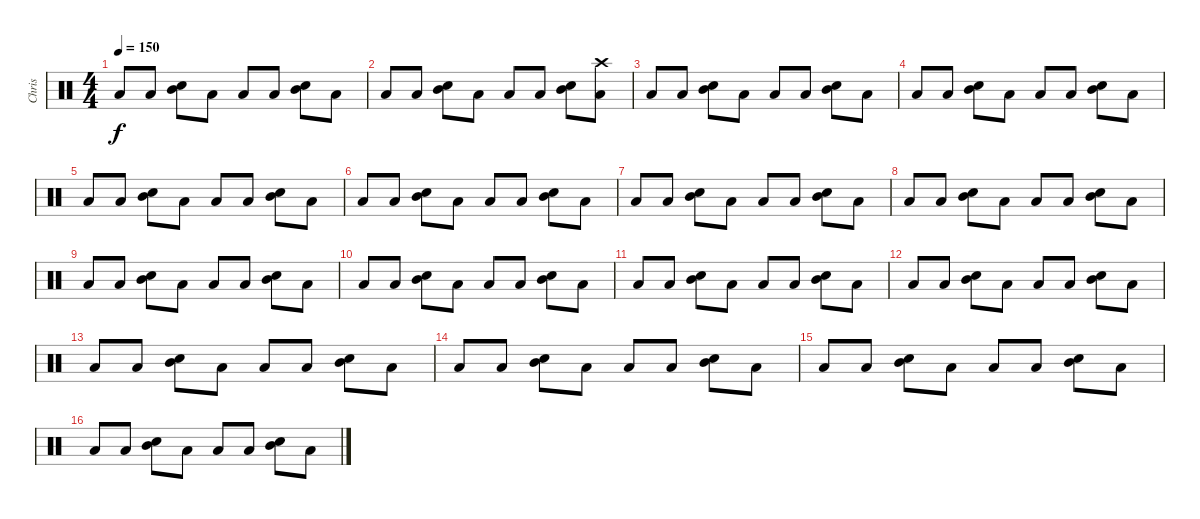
\track ("Chris" "Chris") {instrument percussion}
\staff {score}
\articulation defaults
\ts (4 4)
\tempo 150
\clef neutral
\ks c "Low Tom (hit)".8{dy f} "Low Tom (hit)".8
("Mid Tom (hit)" "Snare (hit) 2").8 "Low Tom (hit)".8 "Low Tom (hit)".8 "Low Tom (hit)".8 ("Mid Tom (hit)" "Snare (hit) 2").8 "Low Tom (hit)".8 |
"Low Tom (hit)".8 "Low Tom (hit)".8 ("Mid Tom (hit)" "Snare (hit) 2").8 "Low Tom (hit)".8 "Low Tom (hit)".8 "Low Tom (hit)".8 ("Mid Tom (hit)" "Snare (hit) 2").8 ("Low Tom (hit)" "Crash high (hit)").8 |
"Low Tom (hit)".8 "Low Tom (hit)".8 ("Mid Tom (hit)" "Snare (hit) 2").8 "Low Tom (hit)".8 "Low Tom (hit)".8 "Low Tom (hit)".8 ("Mid Tom (hit)" "Snare (hit) 2").8 "Low Tom (hit)".8 |
"Low Tom (hit)".8 "Low Tom (hit)".8 ("Mid Tom (hit)" "Snare (hit) 2").8 "Low Tom (hit)".8 "Low Tom (hit)".8 "Low Tom (hit)".8 ("Mid Tom (hit)" "Snare (hit) 2").8 "Low Tom (hit)".8 |
"Low Tom (hit)".8 "Low Tom (hit)".8 ("Mid Tom (hit)" "Snare (hit) 2").8 "Low Tom (hit)".8 "Low Tom (hit)".8 "Low Tom (hit)".8 ("Mid Tom (hit)" "Snare (hit) 2").8 "Low Tom (hit)".8 |
"Low Tom (hit)".8 "Low Tom (hit)".8 ("Mid Tom (hit)" "Snare (hit) 2").8 "Low Tom (hit)".8 "Low Tom (hit)".8 "Low Tom (hit)".8 ("Mid Tom (hit)" "Snare (hit) 2").8 "Low Tom (hit)".8 |
"Low Tom (hit)".8 "Low Tom (hit)".8 ("Mid Tom (hit)" "Snare (hit) 2").8 "Low Tom (hit)".8 "Low Tom (hit)".8 "Low Tom (hit)".8 ("Mid Tom (hit)" "Snare (hit) 2").8 "Low Tom (hit)".8 |
"Low Tom (hit)".8 "Low Tom (hit)".8 ("Mid Tom (hit)" "Snare (hit) 2").8 "Low Tom (hit)".8 "Low Tom (hit)".8 "Low Tom (hit)".8 ("Mid Tom (hit)" "Snare (hit) 2").8 "Low Tom (hit)".8 |
"Low Tom (hit)".8 "Low Tom (hit)".8 ("Mid Tom (hit)" "Snare (hit) 2").8 "Low Tom (hit)".8 "Low Tom (hit)".8 "Low Tom (hit)".8 ("Mid Tom (hit)" "Snare (hit) 2").8 "Low Tom (hit)".8 |
"Low Tom (hit)".8 "Low Tom (hit)".8 ("Mid Tom (hit)" "Snare (hit) 2").8 "Low Tom (hit)".8 "Low Tom (hit)".8 "Low Tom (hit)".8 ("Mid Tom (hit)" "Snare (hit) 2").8 "Low Tom (hit)".8 |
"Low Tom (hit)".8 "Low Tom (hit)".8 ("Mid Tom (hit)" "Snare (hit) 2").8 "Low Tom (hit)".8 "Low Tom (hit)".8 "Low Tom (hit)".8 ("Mid Tom (hit)" "Snare (hit) 2").8 "Low Tom (hit)".8 |
"Low Tom (hit)".8 "Low Tom (hit)".8 ("Mid Tom (hit)" "Snare (hit) 2").8 "Low Tom (hit)".8 "Low Tom (hit)".8 "Low Tom (hit)".8 ("Mid Tom (hit)" "Snare (hit) 2").8 "Low Tom (hit)".8 |
"Low Tom (hit)".8 "Low Tom (hit)".8 ("Mid Tom (hit)" "Snare (hit) 2").8 "Low Tom (hit)".8 "Low Tom (hit)".8 "Low Tom (hit)".8 ("Mid Tom (hit)" "Snare (hit) 2").8 "Low Tom (hit)".8 |
"Low Tom (hit)".8 "Low Tom (hit)".8 ("Mid Tom (hit)" "Snare (hit) 2").8 "Low Tom (hit)".8 "Low Tom (hit)".8 "Low Tom (hit)".8 ("Mid Tom (hit)" "Snare (hit) 2").8 "Low Tom (hit)".8 |
"Low Tom (hit)".8 "Low Tom (hit)".8 ("Mid Tom (hit)" "Snare (hit) 2").8 "Low Tom (hit)".8 "Low Tom (hit)".8 "Low Tom (hit)".8 ("Mid Tom (hit)" "Snare (hit) 2").8 "Low Tom (hit)".8 |
"Low Tom (hit)".8 "Low Tom (hit)".8 ("Mid Tom (hit)" "Snare (hit) 2").8 "Low Tom (hit)".8 "Low Tom (hit)".8 "Low Tom (hit)".8 ("Mid Tom (hit)" "Snare (hit) 2").8 "Low Tom (hit)".8
